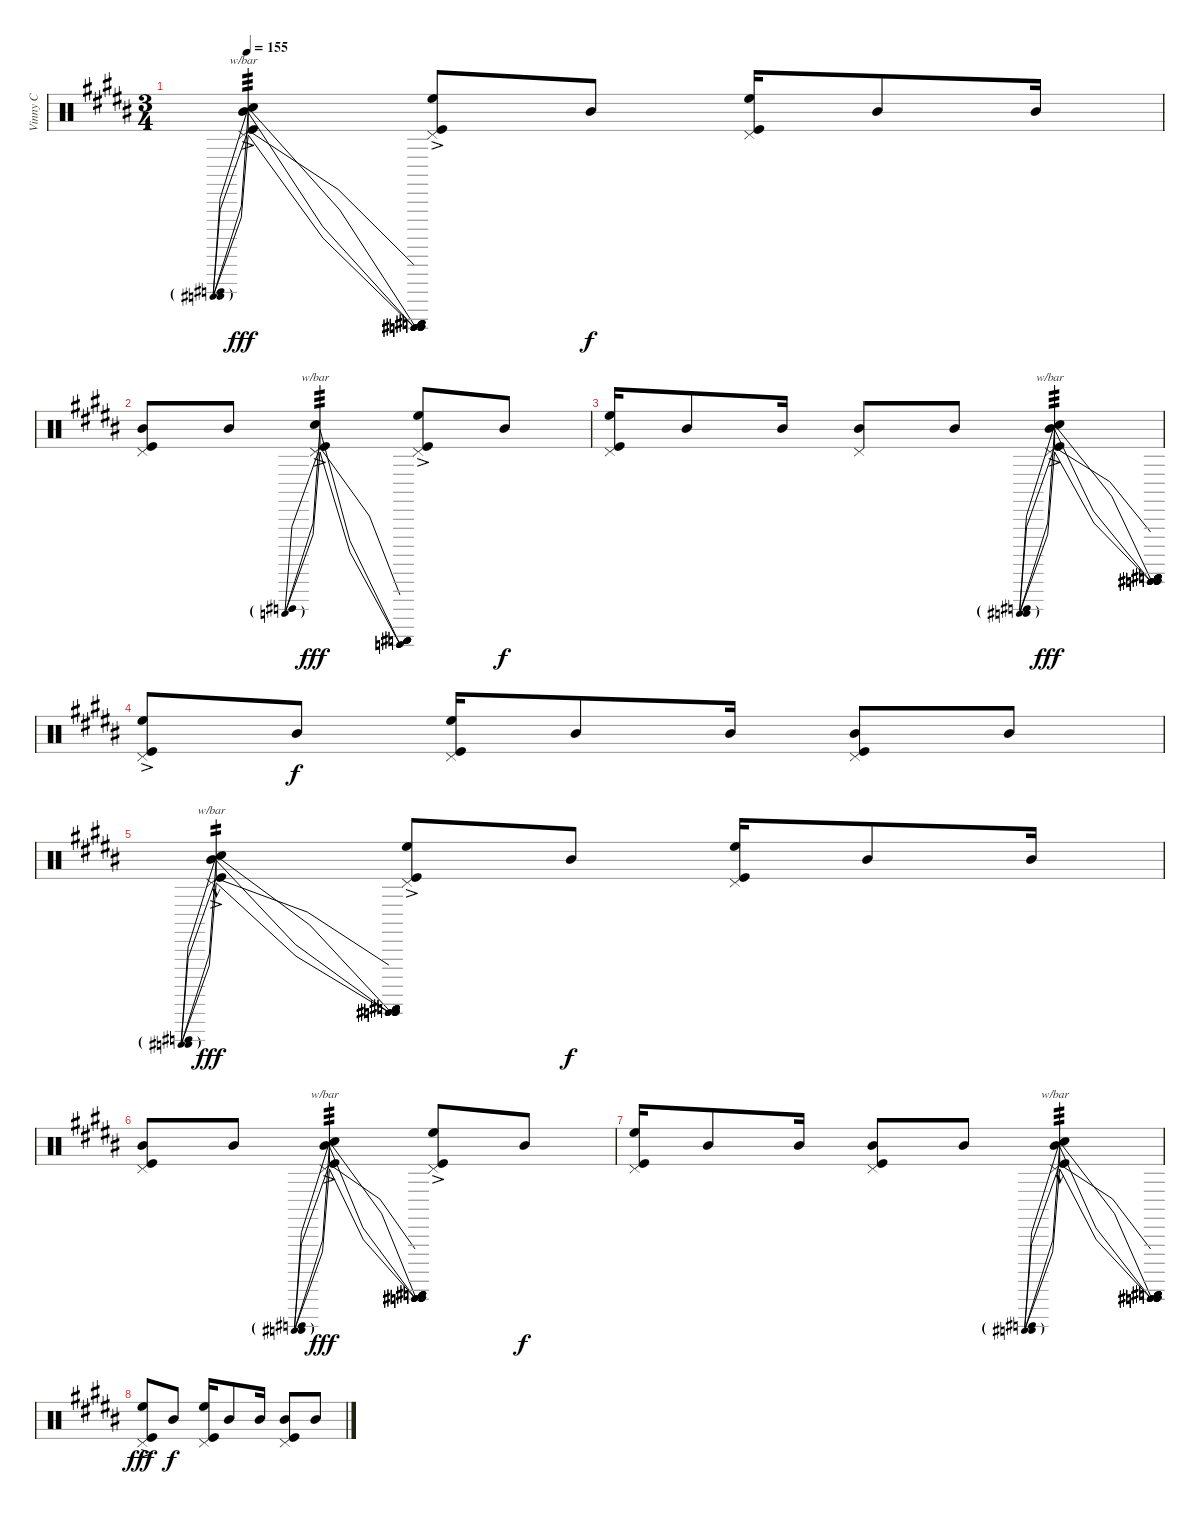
\track ("Vinny C" "Vinny C") {instrument percussion}
\staff {score}
\articulation defaults
\ts (3 4)
\tempo 155
\clef neutral
\ks b
("Pedal Hi-Hat (hit)" "Mid Tom (hit)" "Electric Snare (hit)" "Kick (hit)"{ac}).4{tbe (predivedive default 0 8 60 -24) tp 3 dy fff} ("Pedal Hi-Hat (hit)" "High Floor Tom (hit)" "Kick (hit)"{ac}).8 "Mid Tom (hit)".8{dy f} ("Pedal Hi-Hat (hit)" "High Floor Tom (hit)" "Kick (hit)").16 "Mid Tom (hit)".8 "Mid Tom (hit)".16 |
("Pedal Hi-Hat (hit)" "Mid Tom (hit)" "Kick (hit)").8 "Mid Tom (hit)".8 ("Pedal Hi-Hat (hit)" "Electric Snare (hit)" "Kick (hit)"{ac}).4{tbe (predivedive default 0 12 60 -24) tp 3 dy fff} ("Pedal Hi-Hat (hit)" "High Floor Tom (hit)" "Kick (hit)"{ac}).8 "Mid Tom (hit)".8{dy f} |
("Pedal Hi-Hat (hit)" "High Floor Tom (hit)" "Kick (hit)").16 "Mid Tom (hit)".8 "Mid Tom (hit)".16 ("Pedal Hi-Hat (hit)" "Mid Tom (hit)").8 "Mid Tom (hit)".8 ("Pedal Hi-Hat (hit)" "Mid Tom (hit)" "Electric Snare (hit)" "Kick (hit)"{ac}).4{tbe (predivedive default 0 -12 60 24) tp 3 dy fff} |
("Pedal Hi-Hat (hit)" "High Floor Tom (hit)" "Kick (hit)"{ac}).8 "Mid Tom (hit)".8{dy f} ("Pedal Hi-Hat (hit)" "High Floor Tom (hit)" "Kick (hit)").16 "Mid Tom (hit)".8 "Mid Tom (hit)".16 ("Pedal Hi-Hat (hit)" "Mid Tom (hit)" "Kick (hit)").8 "Mid Tom (hit)".8 |
("Pedal Hi-Hat (hit)" "Mid Tom (hit)" "Electric Snare (hit)"{hac} "Kick (hit)"{ac}).4{tbe (predivedive default 0 -20 60 24) tp 2 dy fff} ("Pedal Hi-Hat (hit)" "High Floor Tom (hit)" "Kick (hit)"{ac}).8 "Mid Tom (hit)".8{dy f} ("Pedal Hi-Hat (hit)" "High Floor Tom (hit)" "Kick (hit)").16 "Mid Tom (hit)".8 "Mid Tom (hit)".16 |
("Pedal Hi-Hat (hit)" "Mid Tom (hit)" "Kick (hit)").8 "Mid Tom (hit)".8 ("Pedal Hi-Hat (hit)" "Mid Tom (hit)" "Electric Snare (hit)" "Kick (hit)"{ac}).4{tbe (predivedive default 0 -12 60 24) tp 3 dy fff} ("Pedal Hi-Hat (hit)" "High Floor Tom (hit)" "Kick (hit)"{ac}).8 "Mid Tom (hit)".8{dy f} |
("Pedal Hi-Hat (hit)" "High Floor Tom (hit)" "Kick (hit)").16 "Mid Tom (hit)".8 "Mid Tom (hit)".16 ("Pedal Hi-Hat (hit)" "Mid Tom (hit)" "Kick (hit)").8 "Mid Tom (hit)".8 ("Pedal Hi-Hat (hit)" "Mid Tom (hit)" "Electric Snare (hit)"{hac} "Kick (hit)").4{tbe (predivedive default 0 -12 60 24) tp 3} |
("Pedal Hi-Hat (hit)" "High Floor Tom (hit)" "Kick (hit)"{ac}).8{dy fff} "Mid Tom (hit)".8{dy f} ("Pedal Hi-Hat (hit)" "High Floor Tom (hit)" "Kick (hit)").16 "Mid Tom (hit)".8 "Mid Tom (hit)".16 ("Pedal Hi-Hat (hit)" "Mid Tom (hit)" "Kick (hit)").8 "Mid Tom (hit)".8
